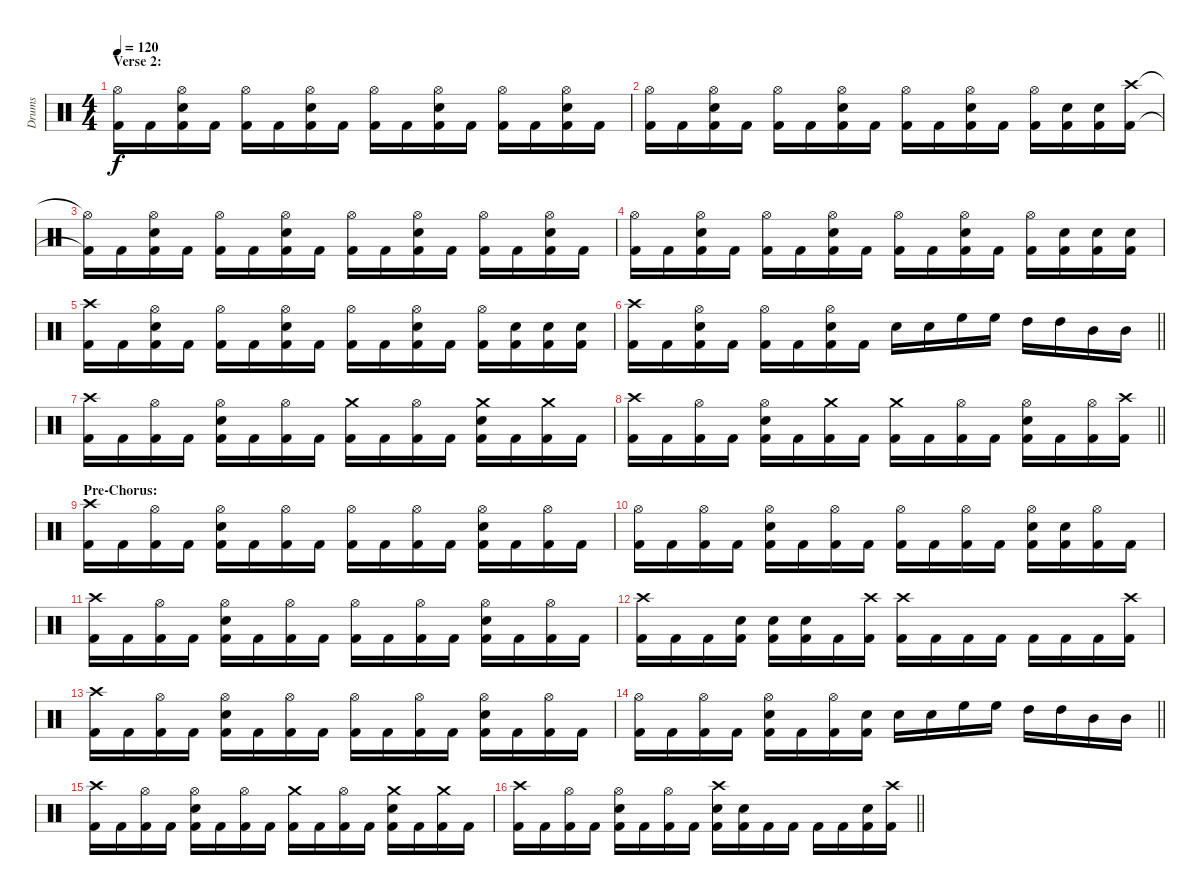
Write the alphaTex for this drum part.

\track ("Drums" "Drums") {instrument percussion}
\staff {score}
\articulation defaults
\ts (4 4)
\section ("" "Verse 2:")
\tempo 120
\clef neutral
\ks c
("Hi-Hat (open)"{t} "Kick (hit) 2"{t}).16{dy f} "Kick (hit) 2".16 ("Hi-Hat (open)" "Electric Snare (hit)" "Kick (hit) 2").16 "Kick (hit) 2".16 ("Hi-Hat (open)" "Kick (hit) 2").16 "Kick (hit) 2".16 ("Hi-Hat (open)" "Electric Snare (hit)" "Kick (hit) 2").16 "Kick (hit) 2".16 ("Hi-Hat (open)" "Kick (hit) 2").16 "Kick (hit) 2".16 ("Hi-Hat (open)" "Electric Snare (hit)" "Kick (hit) 2").16 "Kick (hit) 2".16 ("Hi-Hat (open)" "Kick (hit) 2").16 "Kick (hit) 2".16 ("Hi-Hat (open)" "Electric Snare (hit)" "Kick (hit) 2").16 "Kick (hit) 2".16 |
("Hi-Hat (open)" "Kick (hit) 2").16 "Kick (hit) 2".16 ("Hi-Hat (open)" "Electric Snare (hit)" "Kick (hit) 2").16 "Kick (hit) 2".16 ("Hi-Hat (open)" "Kick (hit) 2").16 "Kick (hit) 2".16 ("Hi-Hat (open)" "Electric Snare (hit)" "Kick (hit) 2").16 "Kick (hit) 2".16 ("Hi-Hat (open)" "Kick (hit) 2").16 "Kick (hit) 2".16 ("Hi-Hat (open)" "Electric Snare (hit)" "Kick (hit) 2").16 "Kick (hit) 2".16 ("Hi-Hat (open)" "Kick (hit) 2").16 ("Electric Snare (hit)" "Kick (hit) 2").16 ("Electric Snare (hit)" "Kick (hit) 2").16 ("Crash high (hit)" "Kick (hit) 2").16 |
("Hi-Hat (open)"{t} "Kick (hit) 2"{t}).16 "Kick (hit) 2".16 ("Hi-Hat (open)" "Electric Snare (hit)" "Kick (hit) 2").16 "Kick (hit) 2".16 ("Hi-Hat (open)" "Kick (hit) 2").16 "Kick (hit) 2".16 ("Hi-Hat (open)" "Electric Snare (hit)" "Kick (hit) 2").16 "Kick (hit) 2".16 ("Hi-Hat (open)" "Kick (hit) 2").16 "Kick (hit) 2".16 ("Hi-Hat (open)" "Electric Snare (hit)" "Kick (hit) 2").16 "Kick (hit) 2".16 ("Hi-Hat (open)" "Kick (hit) 2").16 "Kick (hit) 2".16 ("Hi-Hat (open)" "Electric Snare (hit)" "Kick (hit) 2").16 "Kick (hit) 2".16 |
("Hi-Hat (open)" "Kick (hit) 2").16 "Kick (hit) 2".16 ("Hi-Hat (open)" "Electric Snare (hit)" "Kick (hit) 2").16 "Kick (hit) 2".16 ("Hi-Hat (open)" "Kick (hit) 2").16 "Kick (hit) 2".16 ("Hi-Hat (open)" "Electric Snare (hit)" "Kick (hit) 2").16 "Kick (hit) 2".16 ("Hi-Hat (open)" "Kick (hit) 2").16 "Kick (hit) 2".16 ("Hi-Hat (open)" "Electric Snare (hit)" "Kick (hit) 2").16 "Kick (hit) 2".16 ("Hi-Hat (open)" "Kick (hit) 2").16 ("Electric Snare (hit)" "Kick (hit) 2").16 ("Electric Snare (hit)" "Kick (hit) 2").16 ("Electric Snare (hit)" "Kick (hit) 2").16 |
("Crash high (hit)" "Kick (hit) 2").16 "Kick (hit) 2".16 ("Hi-Hat (open)" "Electric Snare (hit)" "Kick (hit) 2").16 "Kick (hit) 2".16 ("Hi-Hat (open)" "Kick (hit) 2").16 "Kick (hit) 2".16 ("Hi-Hat (open)" "Electric Snare (hit)" "Kick (hit) 2").16 "Kick (hit) 2".16 ("Hi-Hat (open)" "Kick (hit) 2").16 "Kick (hit) 2".16 ("Hi-Hat (open)" "Electric Snare (hit)" "Kick (hit) 2").16 "Kick (hit) 2".16 ("Hi-Hat (open)" "Kick (hit) 2").16 ("Electric Snare (hit)" "Kick (hit) 2").16 ("Electric Snare (hit)" "Kick (hit) 2").16 ("Electric Snare (hit)" "Kick (hit) 2").16 |
\barLineRight lightlight
("Crash high (hit)" "Kick (hit) 2").16 "Kick (hit) 2".16 ("Hi-Hat (open)" "Electric Snare (hit)" "Kick (hit) 2").16 "Kick (hit) 2".16 ("Hi-Hat (open)" "Kick (hit) 2").16 "Kick (hit) 2".16 ("Hi-Hat (open)" "Electric Snare (hit)" "Kick (hit) 2").16 "Kick (hit) 2".16 "Electric Snare (hit)".16 "Electric Snare (hit)".16 "High Floor Tom (hit)".16 "High Floor Tom (hit)".16 "High Tom (hit)".16 "High Tom (hit)".16 "Mid Tom (hit)".16 "Mid Tom (hit)".16 |
("Crash high (hit)" "Kick (hit) 2").16 "Kick (hit) 2".16 ("Hi-Hat (open)" "Kick (hit) 2").16 "Kick (hit) 2".16 ("Hi-Hat (open)" "Electric Snare (hit)" "Kick (hit) 2").16 "Kick (hit) 2".16 ("Hi-Hat (open)" "Kick (hit) 2").16 "Kick (hit) 2".16 ("Crash medium (hit)" "Kick (hit) 2").16 "Kick (hit) 2".16 ("Hi-Hat (open)" "Kick (hit) 2").16 "Kick (hit) 2".16 ("Crash medium (hit)" "Electric Snare (hit)" "Kick (hit) 2").16 "Kick (hit) 2".16 ("Crash medium (hit)" "Kick (hit) 2").16 "Kick (hit) 2".16 |
\barLineRight lightlight
("Crash high (hit)" "Kick (hit) 2").16 "Kick (hit) 2".16 ("Hi-Hat (open)" "Kick (hit) 2").16 "Kick (hit) 2".16 ("Hi-Hat (open)" "Electric Snare (hit)" "Kick (hit) 2").16 "Kick (hit) 2".16 ("Crash medium (hit)" "Kick (hit) 2").16 "Kick (hit) 2".16 ("Crash medium (hit)" "Kick (hit) 2").16 "Kick (hit) 2".16 ("Hi-Hat (open)" "Kick (hit) 2").16 "Kick (hit) 2".16 ("Hi-Hat (open)" "Electric Snare (hit)" "Kick (hit) 2").16 "Kick (hit) 2".16 ("Hi-Hat (open)" "Kick (hit) 2").16 ("Crash high (hit)" "Kick (hit) 2").16 |
\section ("" "Pre-Chorus:")
("Crash high (hit)" "Kick (hit) 2").16 "Kick (hit) 2".16 ("Hi-Hat (open)" "Kick (hit) 2").16 "Kick (hit) 2".16 ("Hi-Hat (open)" "Electric Snare (hit)" "Kick (hit) 2").16 "Kick (hit) 2".16 ("Hi-Hat (open)" "Kick (hit) 2").16 "Kick (hit) 2".16 ("Hi-Hat (open)" "Kick (hit) 2").16 "Kick (hit) 2".16 ("Hi-Hat (open)" "Kick (hit) 2").16 "Kick (hit) 2".16 ("Hi-Hat (open)" "Electric Snare (hit)" "Kick (hit) 2").16 "Kick (hit) 2".16 ("Hi-Hat (open)" "Kick (hit) 2").16 "Kick (hit) 2".16 |
("Hi-Hat (open)" "Kick (hit) 2").16 "Kick (hit) 2".16 ("Hi-Hat (open)" "Kick (hit) 2").16 "Kick (hit) 2".16 ("Hi-Hat (open)" "Electric Snare (hit)" "Kick (hit) 2").16 "Kick (hit) 2".16 ("Hi-Hat (open)" "Kick (hit) 2").16 "Kick (hit) 2".16 ("Hi-Hat (open)" "Kick (hit) 2").16 "Kick (hit) 2".16 ("Hi-Hat (open)" "Kick (hit) 2").16 "Kick (hit) 2".16 ("Hi-Hat (open)" "Electric Snare (hit)" "Kick (hit) 2").16 ("Electric Snare (hit)" "Kick (hit) 2").16 ("Hi-Hat (open)" "Kick (hit) 2").16 "Kick (hit) 2".16 |
("Crash high (hit)" "Kick (hit) 2").16 "Kick (hit) 2".16 ("Hi-Hat (open)" "Kick (hit) 2").16 "Kick (hit) 2".16 ("Hi-Hat (open)" "Electric Snare (hit)" "Kick (hit) 2").16 "Kick (hit) 2".16 ("Hi-Hat (open)" "Kick (hit) 2").16 "Kick (hit) 2".16 ("Hi-Hat (open)" "Kick (hit) 2").16 "Kick (hit) 2".16 ("Hi-Hat (open)" "Kick (hit) 2").16 "Kick (hit) 2".16 ("Hi-Hat (open)" "Electric Snare (hit)" "Kick (hit) 2").16 "Kick (hit) 2".16 ("Hi-Hat (open)" "Kick (hit) 2").16 "Kick (hit) 2".16 |
("Crash high (hit)" "Kick (hit) 2").16 "Kick (hit) 2".16 "Kick (hit) 2".16 ("Electric Snare (hit)" "Kick (hit) 2").16 ("Electric Snare (hit)" "Kick (hit) 2").16 ("Electric Snare (hit)" "Kick (hit) 2").16 "Kick (hit) 2".16 ("Crash high (hit)" "Kick (hit) 2").16 ("Crash high (hit)" "Kick (hit) 2").16 "Kick (hit) 2".16 "Kick (hit) 2".16 "Kick (hit) 2".16 "Kick (hit) 2".16 "Kick (hit) 2".16 "Kick (hit) 2".16 ("Crash high (hit)" "Kick (hit) 2").16 |
("Crash high (hit)" "Kick (hit) 2").16 "Kick (hit) 2".16 ("Hi-Hat (open)" "Kick (hit) 2").16 "Kick (hit) 2".16 ("Hi-Hat (open)" "Electric Snare (hit)" "Kick (hit) 2").16 "Kick (hit) 2".16 ("Hi-Hat (open)" "Kick (hit) 2").16 "Kick (hit) 2".16 ("Hi-Hat (open)" "Kick (hit) 2").16 "Kick (hit) 2".16 ("Hi-Hat (open)" "Kick (hit) 2").16 "Kick (hit) 2".16 ("Hi-Hat (open)" "Electric Snare (hit)" "Kick (hit) 2").16 "Kick (hit) 2".16 ("Hi-Hat (open)" "Kick (hit) 2").16 "Kick (hit) 2".16 |
\barLineRight lightlight
("Hi-Hat (open)" "Kick (hit) 2").16 "Kick (hit) 2".16 ("Hi-Hat (open)" "Kick (hit) 2").16 "Kick (hit) 2".16 ("Hi-Hat (open)" "Electric Snare (hit)" "Kick (hit) 2").16 "Kick (hit) 2".16 ("Hi-Hat (open)" "Kick (hit) 2").16 ("Electric Snare (hit)" "Kick (hit) 2").16 "Electric Snare (hit)".16 "Electric Snare (hit)".16 "High Floor Tom (hit)".16 "High Floor Tom (hit)".16 "High Tom (hit)".16 "High Tom (hit)".16 "Mid Tom (hit)".16 "Mid Tom (hit)".16 |
("Crash high (hit)" "Kick (hit) 2").16 "Kick (hit) 2".16 ("Hi-Hat (open)" "Kick (hit) 2").16 "Kick (hit) 2".16 ("Hi-Hat (open)" "Electric Snare (hit)" "Kick (hit) 2").16 "Kick (hit) 2".16 ("Hi-Hat (open)" "Kick (hit) 2").16 "Kick (hit) 2".16 ("Crash medium (hit)" "Kick (hit) 2").16 "Kick (hit) 2".16 ("Hi-Hat (open)" "Kick (hit) 2").16 "Kick (hit) 2".16 ("Crash medium (hit)" "Electric Snare (hit)" "Kick (hit) 2").16 "Kick (hit) 2".16 ("Crash medium (hit)" "Kick (hit) 2").16 "Kick (hit) 2".16 |
\barLineRight lightlight
("Crash high (hit)" "Kick (hit) 2").16 "Kick (hit) 2".16 ("Hi-Hat (open)" "Kick (hit) 2").16 "Kick (hit) 2".16 ("Hi-Hat (open)" "Electric Snare (hit)" "Kick (hit) 2").16 "Kick (hit) 2".16 ("Hi-Hat (open)" "Kick (hit) 2").16 "Kick (hit) 2".16 ("Crash high (hit)" "Electric Snare (hit)" "Kick (hit) 2").16 ("Electric Snare (hit)" "Kick (hit) 2").16 "Kick (hit) 2".16 "Kick (hit) 2".16 "Kick (hit) 2".16 "Kick (hit) 2".16 ("Electric Snare (hit)" "Kick (hit) 2").16 ("Crash high (hit)" "Kick (hit) 2").16
